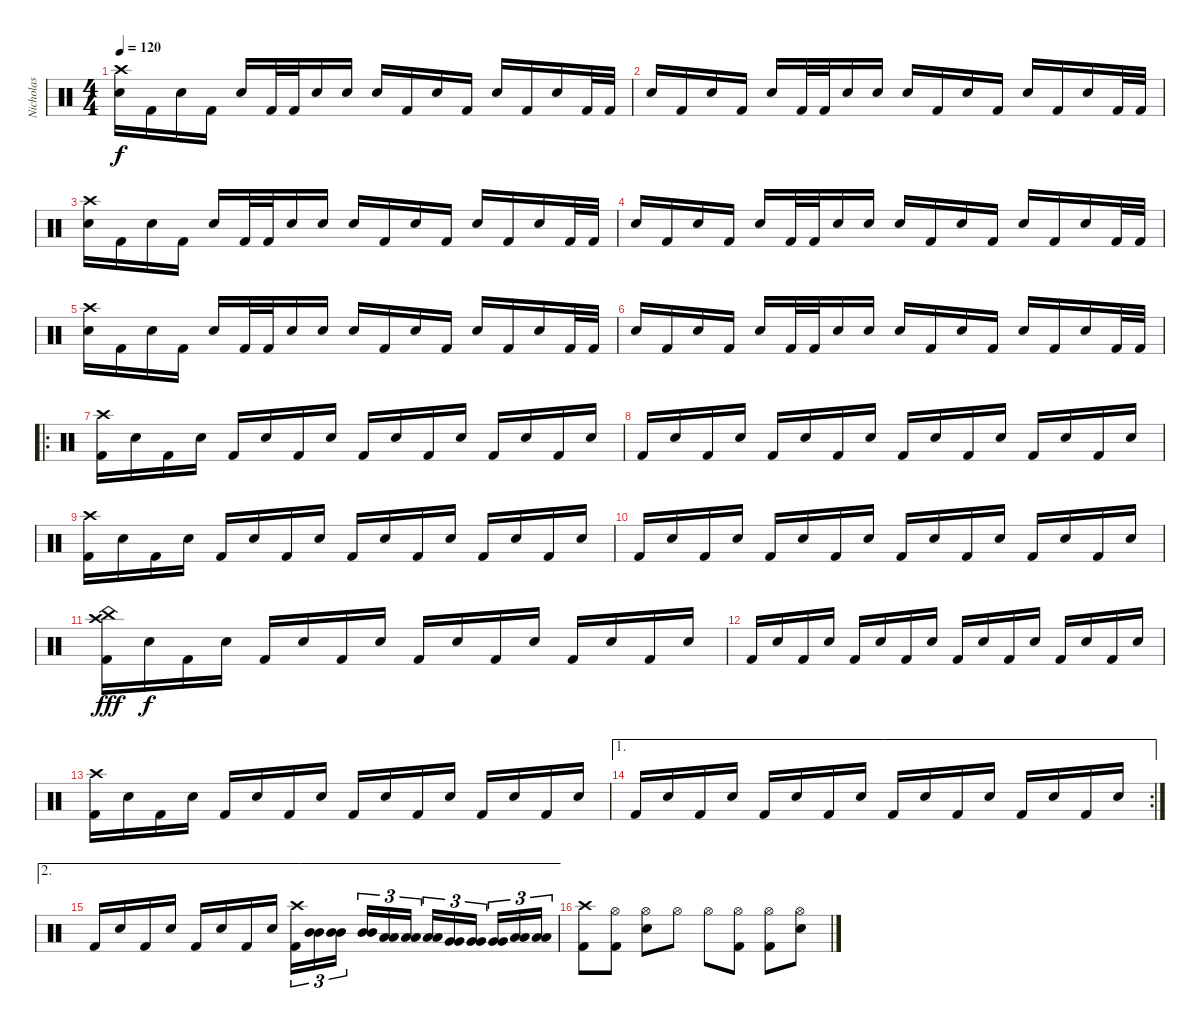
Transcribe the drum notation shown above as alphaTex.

\track ("Nicholas" "Nicholas") {instrument percussion}
\staff {score}
\articulation defaults
\ts (4 4)
\tempo 120
\clef neutral
\ks c
("Electric Snare (hit)" "Crash high (hit)").16{dy f} "Kick (hit) 2".16 "Electric Snare (hit)".16 "Kick (hit) 2".16 "Electric Snare (hit)".16 "Kick (hit) 2".32 "Kick (hit) 2".32 "Electric Snare (hit)".16 "Electric Snare (hit)".16 "Electric Snare (hit)".16 "Kick (hit) 2".16 "Electric Snare (hit)".16 "Kick (hit) 2".16 "Electric Snare (hit)".16 "Kick (hit) 2".16 "Electric Snare (hit)".16 "Kick (hit) 2".32 "Kick (hit) 2".32 |
"Electric Snare (hit)".16 "Kick (hit) 2".16 "Electric Snare (hit)".16 "Kick (hit) 2".16 "Electric Snare (hit)".16 "Kick (hit) 2".32 "Kick (hit) 2".32 "Electric Snare (hit)".16 "Electric Snare (hit)".16 "Electric Snare (hit)".16 "Kick (hit) 2".16 "Electric Snare (hit)".16 "Kick (hit) 2".16 "Electric Snare (hit)".16 "Kick (hit) 2".16 "Electric Snare (hit)".16 "Kick (hit) 2".32 "Kick (hit) 2".32 |
("Electric Snare (hit)" "Crash high (hit)").16 "Kick (hit) 2".16 "Electric Snare (hit)".16 "Kick (hit) 2".16 "Electric Snare (hit)".16 "Kick (hit) 2".32 "Kick (hit) 2".32 "Electric Snare (hit)".16 "Electric Snare (hit)".16 "Electric Snare (hit)".16 "Kick (hit) 2".16 "Electric Snare (hit)".16 "Kick (hit) 2".16 "Electric Snare (hit)".16 "Kick (hit) 2".16 "Electric Snare (hit)".16 "Kick (hit) 2".32 "Kick (hit) 2".32 |
"Electric Snare (hit)".16 "Kick (hit) 2".16 "Electric Snare (hit)".16 "Kick (hit) 2".16 "Electric Snare (hit)".16 "Kick (hit) 2".32 "Kick (hit) 2".32 "Electric Snare (hit)".16 "Electric Snare (hit)".16 "Electric Snare (hit)".16 "Kick (hit) 2".16 "Electric Snare (hit)".16 "Kick (hit) 2".16 "Electric Snare (hit)".16 "Kick (hit) 2".16 "Electric Snare (hit)".16 "Kick (hit) 2".32 "Kick (hit) 2".32 |
("Electric Snare (hit)" "Crash high (hit)").16 "Kick (hit) 2".16 "Electric Snare (hit)".16 "Kick (hit) 2".16 "Electric Snare (hit)".16 "Kick (hit) 2".32 "Kick (hit) 2".32 "Electric Snare (hit)".16 "Electric Snare (hit)".16 "Electric Snare (hit)".16 "Kick (hit) 2".16 "Electric Snare (hit)".16 "Kick (hit) 2".16 "Electric Snare (hit)".16 "Kick (hit) 2".16 "Electric Snare (hit)".16 "Kick (hit) 2".32 "Kick (hit) 2".32 |
"Electric Snare (hit)".16 "Kick (hit) 2".16 "Electric Snare (hit)".16 "Kick (hit) 2".16 "Electric Snare (hit)".16 "Kick (hit) 2".32 "Kick (hit) 2".32 "Electric Snare (hit)".16 "Electric Snare (hit)".16 "Electric Snare (hit)".16 "Kick (hit) 2".16 "Electric Snare (hit)".16 "Kick (hit) 2".16 "Electric Snare (hit)".16 "Kick (hit) 2".16 "Electric Snare (hit)".16 "Kick (hit) 2".32 "Kick (hit) 2".32 |
\ro
("Crash high (hit)" "Kick (hit) 2").16 "Electric Snare (hit)".16 "Kick (hit) 2".16 "Electric Snare (hit)".16 "Kick (hit) 2".16 "Electric Snare (hit)".16 "Kick (hit) 2".16 "Electric Snare (hit)".16 "Kick (hit) 2".16 "Electric Snare (hit)".16 "Kick (hit) 2".16 "Electric Snare (hit)".16 "Kick (hit) 2".16 "Electric Snare (hit)".16 "Kick (hit) 2".16 "Electric Snare (hit)".16 |
"Kick (hit) 2".16 "Electric Snare (hit)".16 "Kick (hit) 2".16 "Electric Snare (hit)".16 "Kick (hit) 2".16 "Electric Snare (hit)".16 "Kick (hit) 2".16 "Electric Snare (hit)".16 "Kick (hit) 2".16 "Electric Snare (hit)".16 "Kick (hit) 2".16 "Electric Snare (hit)".16 "Kick (hit) 2".16 "Electric Snare (hit)".16 "Kick (hit) 2".16 "Electric Snare (hit)".16 |
("Crash high (hit)" "Kick (hit) 2").16 "Electric Snare (hit)".16 "Kick (hit) 2".16 "Electric Snare (hit)".16 "Kick (hit) 2".16 "Electric Snare (hit)".16 "Kick (hit) 2".16 "Electric Snare (hit)".16 "Kick (hit) 2".16 "Electric Snare (hit)".16 "Kick (hit) 2".16 "Electric Snare (hit)".16 "Kick (hit) 2".16 "Electric Snare (hit)".16 "Kick (hit) 2".16 "Electric Snare (hit)".16 |
"Kick (hit) 2".16 "Electric Snare (hit)".16 "Kick (hit) 2".16 "Electric Snare (hit)".16 "Kick (hit) 2".16 "Electric Snare (hit)".16 "Kick (hit) 2".16 "Electric Snare (hit)".16 "Kick (hit) 2".16 "Electric Snare (hit)".16 "Kick (hit) 2".16 "Electric Snare (hit)".16 "Kick (hit) 2".16 "Electric Snare (hit)".16 "Kick (hit) 2".16 "Electric Snare (hit)".16 |
("China (hit)" "Crash high (hit)" "Kick (hit) 2").16{dy fff} "Electric Snare (hit)".16{dy f} "Kick (hit) 2".16 "Electric Snare (hit)".16 "Kick (hit) 2".16 "Electric Snare (hit)".16 "Kick (hit) 2".16 "Electric Snare (hit)".16 "Kick (hit) 2".16 "Electric Snare (hit)".16 "Kick (hit) 2".16 "Electric Snare (hit)".16 "Kick (hit) 2".16 "Electric Snare (hit)".16 "Kick (hit) 2".16 "Electric Snare (hit)".16 |
"Kick (hit) 2".16 "Electric Snare (hit)".16 "Kick (hit) 2".16 "Electric Snare (hit)".16 "Kick (hit) 2".16 "Electric Snare (hit)".16 "Kick (hit) 2".16 "Electric Snare (hit)".16 "Kick (hit) 2".16 "Electric Snare (hit)".16 "Kick (hit) 2".16 "Electric Snare (hit)".16 "Kick (hit) 2".16 "Electric Snare (hit)".16 "Kick (hit) 2".16 "Electric Snare (hit)".16 |
("Crash high (hit)" "Kick (hit) 2").16 "Electric Snare (hit)".16 "Kick (hit) 2".16 "Electric Snare (hit)".16 "Kick (hit) 2".16 "Electric Snare (hit)".16 "Kick (hit) 2".16 "Electric Snare (hit)".16 "Kick (hit) 2".16 "Electric Snare (hit)".16 "Kick (hit) 2".16 "Electric Snare (hit)".16 "Kick (hit) 2".16 "Electric Snare (hit)".16 "Kick (hit) 2".16 "Electric Snare (hit)".16 |
\ae 1
\rc 2 "Kick (hit) 2".16 "Electric Snare (hit)".16 "Kick (hit) 2".16 "Electric Snare (hit)".16 "Kick (hit) 2".16 "Electric Snare (hit)".16 "Kick (hit) 2".16 "Electric Snare (hit)".16 "Kick (hit) 2".16 "Electric Snare (hit)".16 "Kick (hit) 2".16 "Electric Snare (hit)".16 "Kick (hit) 2".16 "Electric Snare (hit)".16 "Kick (hit) 2".16 "Electric Snare (hit)".16
|
\ae 2 "Kick (hit) 2".16 "Electric Snare (hit)".16 "Kick (hit) 2".16 "Electric Snare (hit)".16 "Kick (hit) 2".16 "Electric Snare (hit)".16 "Kick (hit) 2".16 "Electric Snare (hit)".16
("Crash high (hit)" "Kick (hit) 2").16{tu (3 2)} ("Mid Tom (hit)" "Mid Tom (hit)").16{tu (3 2)} ("Mid Tom (hit)" "Mid Tom (hit)").16{tu (3 2)} ("Mid Tom (hit)" "Mid Tom (hit)").16{tu (3 2)} ("Low Tom (hit)" "Low Tom (hit)").16{tu (3 2)} ("Low Tom (hit)" "Low Tom (hit)").16{tu (3 2)} ("Low Tom (hit)" "Low Tom (hit)").16{tu (3 2)} ("Very Low Tom (hit)" "Very Low Tom (hit)").16{tu (3 2)} ("Very Low Tom (hit)" "Very Low Tom (hit)").16{tu (3 2)} ("Very Low Tom (hit)" "Very Low Tom (hit)").16{tu (3 2)} ("Low Floor Tom (hit)" "Low Floor Tom (hit)").16{tu (3 2)} ("Low Floor Tom (hit)" "Low Floor Tom (hit)").16{tu (3 2)} |
("Crash high (hit)" "Kick (hit) 2").8 ("Hi-Hat (open)" "Kick (hit) 2").8 ("Hi-Hat (open)" "Electric Snare (hit)").8 "Hi-Hat (open)".8 "Hi-Hat (open)".8 ("Hi-Hat (open)" "Kick (hit) 2").8 ("Hi-Hat (open)" "Kick (hit) 2").8 ("Hi-Hat (open)" "Electric Snare (hit)").8
